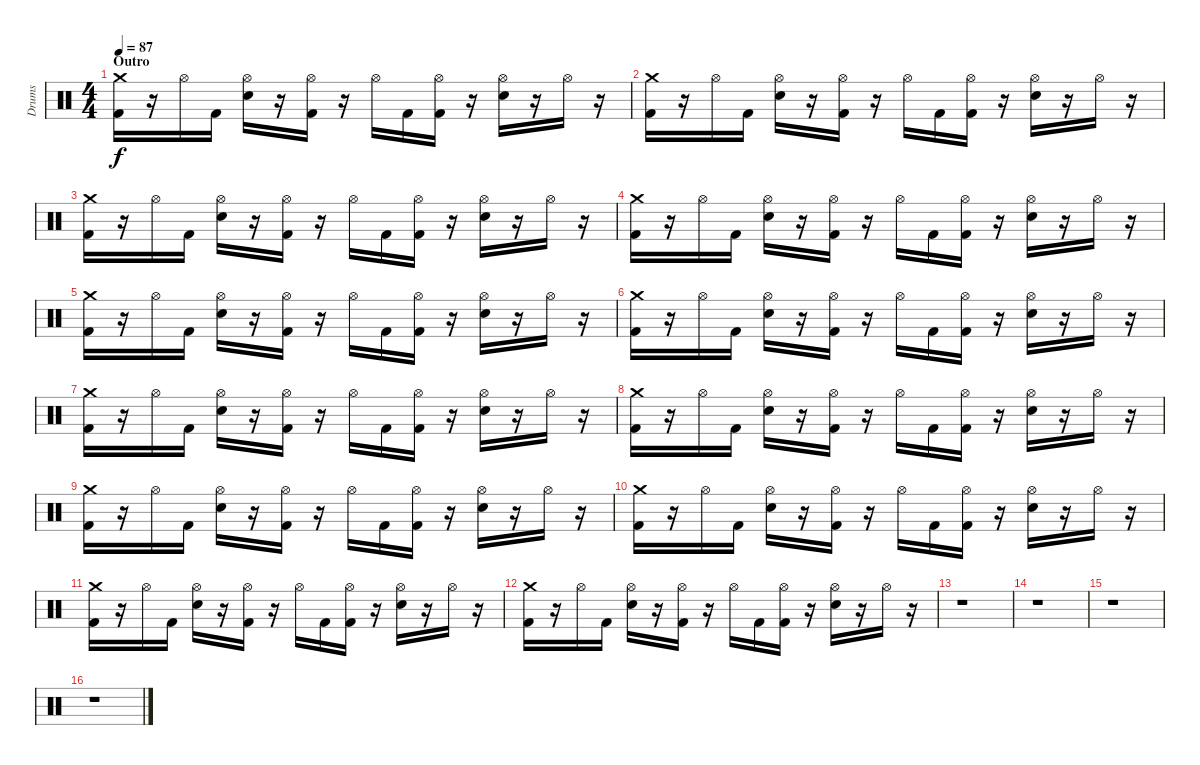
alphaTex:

\track ("Drums" "Drums") {instrument percussion}
\staff {score}
\articulation defaults
\ts (4 4)
\section ("" "Outro")
\tempo 87
\clef neutral
\ks c
("Crash medium (hit)" "Kick (hit) 2").16{dy f} r.16 "Hi-Hat (open)".16 "Kick (hit) 2".16 ("Hi-Hat (open)" "Electric Snare (hit)").16 r.16 ("Hi-Hat (open)" "Kick (hit) 2").16 r.16 "Hi-Hat (open)".16 "Kick (hit) 2".16 ("Hi-Hat (open)" "Kick (hit) 2").16 r.16 ("Hi-Hat (open)" "Electric Snare (hit)").16 r.16 "Hi-Hat (open)".16 r.16 |
("Crash medium (hit)" "Kick (hit) 2").16 r.16 "Hi-Hat (open)".16 "Kick (hit) 2".16 ("Hi-Hat (open)" "Electric Snare (hit)").16 r.16 ("Hi-Hat (open)" "Kick (hit) 2").16 r.16 "Hi-Hat (open)".16 "Kick (hit) 2".16 ("Hi-Hat (open)" "Kick (hit) 2").16 r.16 ("Hi-Hat (open)" "Electric Snare (hit)").16 r.16 "Hi-Hat (open)".16 r.16 |
("Crash medium (hit)" "Kick (hit) 2").16 r.16 "Hi-Hat (open)".16 "Kick (hit) 2".16 ("Hi-Hat (open)" "Electric Snare (hit)").16 r.16 ("Hi-Hat (open)" "Kick (hit) 2").16 r.16 "Hi-Hat (open)".16 "Kick (hit) 2".16 ("Hi-Hat (open)" "Kick (hit) 2").16 r.16 ("Hi-Hat (open)" "Electric Snare (hit)").16 r.16 "Hi-Hat (open)".16 r.16 |
("Crash medium (hit)" "Kick (hit) 2").16 r.16 "Hi-Hat (open)".16 "Kick (hit) 2".16 ("Hi-Hat (open)" "Electric Snare (hit)").16 r.16 ("Hi-Hat (open)" "Kick (hit) 2").16 r.16 "Hi-Hat (open)".16 "Kick (hit) 2".16 ("Hi-Hat (open)" "Kick (hit) 2").16 r.16 ("Hi-Hat (open)" "Electric Snare (hit)").16 r.16 "Hi-Hat (open)".16 r.16 |
("Crash medium (hit)" "Kick (hit) 2").16 r.16 "Hi-Hat (open)".16 "Kick (hit) 2".16 ("Hi-Hat (open)" "Electric Snare (hit)").16 r.16 ("Hi-Hat (open)" "Kick (hit) 2").16 r.16 "Hi-Hat (open)".16 "Kick (hit) 2".16 ("Hi-Hat (open)" "Kick (hit) 2").16 r.16 ("Hi-Hat (open)" "Electric Snare (hit)").16 r.16 "Hi-Hat (open)".16 r.16 |
("Crash medium (hit)" "Kick (hit) 2").16 r.16 "Hi-Hat (open)".16 "Kick (hit) 2".16 ("Hi-Hat (open)" "Electric Snare (hit)").16 r.16 ("Hi-Hat (open)" "Kick (hit) 2").16 r.16 "Hi-Hat (open)".16 "Kick (hit) 2".16 ("Hi-Hat (open)" "Kick (hit) 2").16 r.16 ("Hi-Hat (open)" "Electric Snare (hit)").16 r.16 "Hi-Hat (open)".16 r.16 |
("Crash medium (hit)" "Kick (hit) 2").16 r.16 "Hi-Hat (open)".16 "Kick (hit) 2".16 ("Hi-Hat (open)" "Electric Snare (hit)").16 r.16 ("Hi-Hat (open)" "Kick (hit) 2").16 r.16 "Hi-Hat (open)".16 "Kick (hit) 2".16 ("Hi-Hat (open)" "Kick (hit) 2").16 r.16 ("Hi-Hat (open)" "Electric Snare (hit)").16 r.16 "Hi-Hat (open)".16 r.16 |
("Crash medium (hit)" "Kick (hit) 2").16 r.16 "Hi-Hat (open)".16 "Kick (hit) 2".16 ("Hi-Hat (open)" "Electric Snare (hit)").16 r.16 ("Hi-Hat (open)" "Kick (hit) 2").16 r.16 "Hi-Hat (open)".16 "Kick (hit) 2".16 ("Hi-Hat (open)" "Kick (hit) 2").16 r.16 ("Hi-Hat (open)" "Electric Snare (hit)").16 r.16 "Hi-Hat (open)".16 r.16 |
("Crash medium (hit)" "Kick (hit) 2").16 r.16 "Hi-Hat (open)".16 "Kick (hit) 2".16 ("Hi-Hat (open)" "Electric Snare (hit)").16 r.16 ("Hi-Hat (open)" "Kick (hit) 2").16 r.16 "Hi-Hat (open)".16 "Kick (hit) 2".16 ("Hi-Hat (open)" "Kick (hit) 2").16 r.16 ("Hi-Hat (open)" "Electric Snare (hit)").16 r.16 "Hi-Hat (open)".16 r.16 |
("Crash medium (hit)" "Kick (hit) 2").16 r.16 "Hi-Hat (open)".16 "Kick (hit) 2".16 ("Hi-Hat (open)" "Electric Snare (hit)").16 r.16 ("Hi-Hat (open)" "Kick (hit) 2").16 r.16 "Hi-Hat (open)".16 "Kick (hit) 2".16 ("Hi-Hat (open)" "Kick (hit) 2").16 r.16 ("Hi-Hat (open)" "Electric Snare (hit)").16 r.16 "Hi-Hat (open)".16 r.16 |
("Crash medium (hit)" "Kick (hit) 2").16 r.16 "Hi-Hat (open)".16 "Kick (hit) 2".16 ("Hi-Hat (open)" "Electric Snare (hit)").16 r.16 ("Hi-Hat (open)" "Kick (hit) 2").16 r.16 "Hi-Hat (open)".16 "Kick (hit) 2".16 ("Hi-Hat (open)" "Kick (hit) 2").16 r.16 ("Hi-Hat (open)" "Electric Snare (hit)").16 r.16 "Hi-Hat (open)".16 r.16 |
("Crash medium (hit)" "Kick (hit) 2").16 r.16 "Hi-Hat (open)".16 "Kick (hit) 2".16 ("Hi-Hat (open)" "Electric Snare (hit)").16 r.16 ("Hi-Hat (open)" "Kick (hit) 2").16 r.16 "Hi-Hat (open)".16 "Kick (hit) 2".16 ("Hi-Hat (open)" "Kick (hit) 2").16 r.16 ("Hi-Hat (open)" "Electric Snare (hit)").16 r.16 "Hi-Hat (open)".16 r.16 |
r.1 |
r.1 |
r.1 |
r.1
